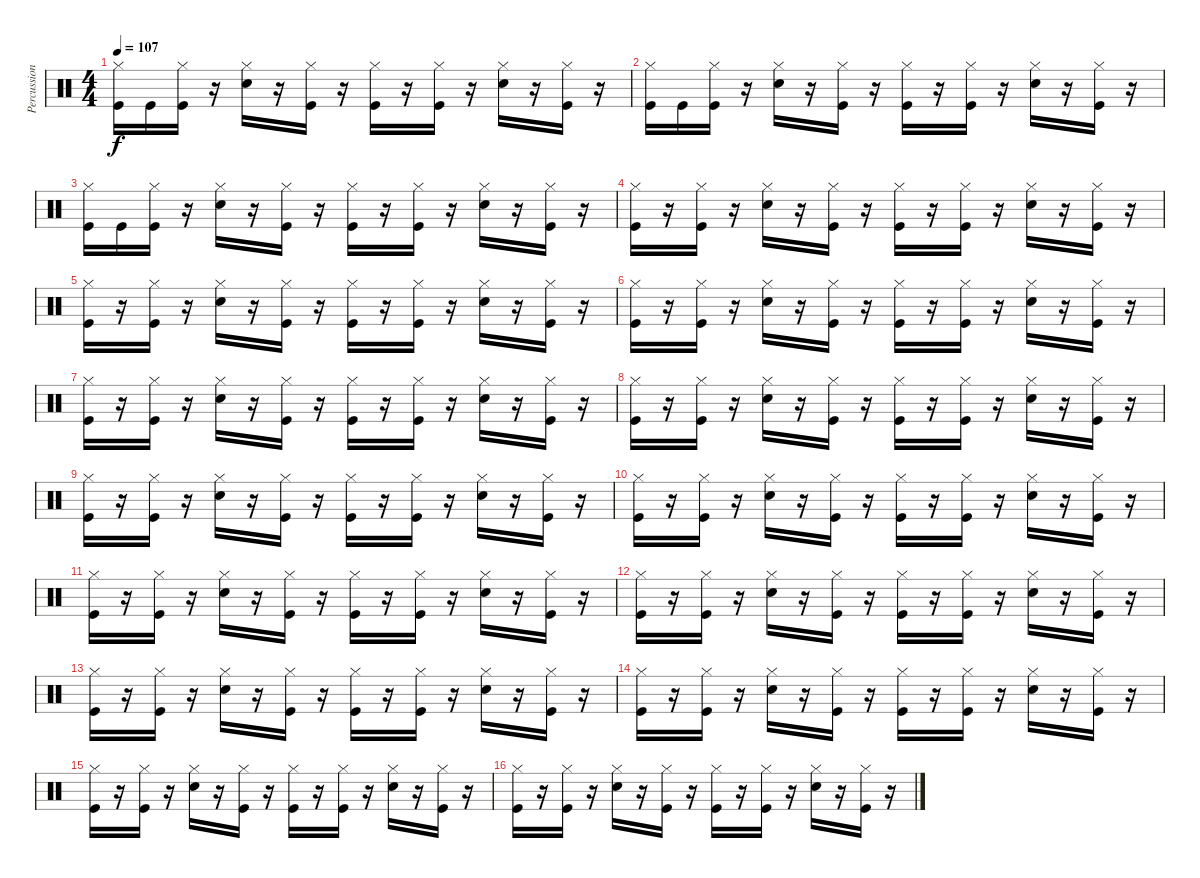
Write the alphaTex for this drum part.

\track ("Percussions" "Percussion") {instrument percussion}
\staff {score}
\articulation defaults
\ts (4 4)
\tempo 107
\clef neutral
\ks c
("Hi-Hat (closed)" "Kick (hit)").16{dy f volume 0} "Kick (hit)".16{volume 16} ("Hi-Hat (closed)" "Kick (hit)").16 r.16 ("Hi-Hat (closed)" "Electric Snare (hit)").16 r.16 ("Hi-Hat (closed)" "Kick (hit)").16 r.16 ("Hi-Hat (closed)" "Kick (hit)").16 r.16 ("Hi-Hat (closed)" "Kick (hit)").16 r.16 ("Hi-Hat (closed)" "Electric Snare (hit)").16 r.16 ("Hi-Hat (closed)" "Kick (hit)").16 r.16 |
("Hi-Hat (closed)" "Kick (hit)").16 "Kick (hit)".16 ("Hi-Hat (closed)" "Kick (hit)").16 r.16 ("Hi-Hat (closed)" "Electric Snare (hit)").16 r.16 ("Hi-Hat (closed)" "Kick (hit)").16 r.16 ("Hi-Hat (closed)" "Kick (hit)").16 r.16 ("Hi-Hat (closed)" "Kick (hit)").16 r.16 ("Hi-Hat (closed)" "Electric Snare (hit)").16 r.16 ("Hi-Hat (closed)" "Kick (hit)").16 r.16 |
("Hi-Hat (closed)" "Kick (hit)").16 "Kick (hit)".16 ("Hi-Hat (closed)" "Kick (hit)").16 r.16 ("Hi-Hat (closed)" "Electric Snare (hit)").16 r.16 ("Hi-Hat (closed)" "Kick (hit)").16 r.16 ("Hi-Hat (closed)" "Kick (hit)").16 r.16 ("Hi-Hat (closed)" "Kick (hit)").16 r.16 ("Hi-Hat (closed)" "Electric Snare (hit)").16 r.16 ("Hi-Hat (closed)" "Kick (hit)").16 r.16 |
("Hi-Hat (closed)" "Kick (hit)").16 r.16 ("Hi-Hat (closed)" "Kick (hit)").16 r.16 ("Hi-Hat (closed)" "Electric Snare (hit)").16 r.16 ("Hi-Hat (closed)" "Kick (hit)").16 r.16 ("Hi-Hat (closed)" "Kick (hit)").16 r.16 ("Hi-Hat (closed)" "Kick (hit)").16 r.16 ("Hi-Hat (closed)" "Electric Snare (hit)").16 r.16 ("Hi-Hat (closed)" "Kick (hit)").16 r.16 |
("Hi-Hat (closed)" "Kick (hit)").16 r.16 ("Hi-Hat (closed)" "Kick (hit)").16 r.16 ("Hi-Hat (closed)" "Electric Snare (hit)").16 r.16 ("Hi-Hat (closed)" "Kick (hit)").16 r.16 ("Hi-Hat (closed)" "Kick (hit)").16 r.16 ("Hi-Hat (closed)" "Kick (hit)").16 r.16 ("Hi-Hat (closed)" "Electric Snare (hit)").16 r.16 ("Hi-Hat (closed)" "Kick (hit)").16 r.16 |
("Hi-Hat (closed)" "Kick (hit)").16 r.16 ("Hi-Hat (closed)" "Kick (hit)").16 r.16 ("Hi-Hat (closed)" "Electric Snare (hit)").16 r.16 ("Hi-Hat (closed)" "Kick (hit)").16 r.16 ("Hi-Hat (closed)" "Kick (hit)").16 r.16 ("Hi-Hat (closed)" "Kick (hit)").16 r.16 ("Hi-Hat (closed)" "Electric Snare (hit)").16 r.16 ("Hi-Hat (closed)" "Kick (hit)").16 r.16 |
("Hi-Hat (closed)" "Kick (hit)").16 r.16 ("Hi-Hat (closed)" "Kick (hit)").16 r.16 ("Hi-Hat (closed)" "Electric Snare (hit)").16 r.16 ("Hi-Hat (closed)" "Kick (hit)").16 r.16 ("Hi-Hat (closed)" "Kick (hit)").16 r.16 ("Hi-Hat (closed)" "Kick (hit)").16 r.16 ("Hi-Hat (closed)" "Electric Snare (hit)").16 r.16 ("Hi-Hat (closed)" "Kick (hit)").16 r.16 |
("Hi-Hat (closed)" "Kick (hit)").16 r.16 ("Hi-Hat (closed)" "Kick (hit)").16 r.16 ("Hi-Hat (closed)" "Electric Snare (hit)").16 r.16 ("Hi-Hat (closed)" "Kick (hit)").16 r.16 ("Hi-Hat (closed)" "Kick (hit)").16 r.16 ("Hi-Hat (closed)" "Kick (hit)").16 r.16 ("Hi-Hat (closed)" "Electric Snare (hit)").16 r.16 ("Hi-Hat (closed)" "Kick (hit)").16 r.16 |
("Hi-Hat (closed)" "Kick (hit)").16 r.16 ("Hi-Hat (closed)" "Kick (hit)").16 r.16 ("Hi-Hat (closed)" "Electric Snare (hit)").16 r.16 ("Hi-Hat (closed)" "Kick (hit)").16 r.16 ("Hi-Hat (closed)" "Kick (hit)").16 r.16 ("Hi-Hat (closed)" "Kick (hit)").16 r.16 ("Hi-Hat (closed)" "Electric Snare (hit)").16 r.16 ("Hi-Hat (closed)" "Kick (hit)").16 r.16 |
("Hi-Hat (closed)" "Kick (hit)").16 r.16 ("Hi-Hat (closed)" "Kick (hit)").16 r.16 ("Hi-Hat (closed)" "Electric Snare (hit)").16 r.16 ("Hi-Hat (closed)" "Kick (hit)").16 r.16 ("Hi-Hat (closed)" "Kick (hit)").16 r.16 ("Hi-Hat (closed)" "Kick (hit)").16 r.16 ("Hi-Hat (closed)" "Electric Snare (hit)").16 r.16 ("Hi-Hat (closed)" "Kick (hit)").16 r.16 |
("Hi-Hat (closed)" "Kick (hit)").16 r.16 ("Hi-Hat (closed)" "Kick (hit)").16 r.16 ("Hi-Hat (closed)" "Electric Snare (hit)").16 r.16 ("Hi-Hat (closed)" "Kick (hit)").16 r.16 ("Hi-Hat (closed)" "Kick (hit)").16 r.16 ("Hi-Hat (closed)" "Kick (hit)").16 r.16 ("Hi-Hat (closed)" "Electric Snare (hit)").16 r.16 ("Hi-Hat (closed)" "Kick (hit)").16 r.16 |
("Hi-Hat (closed)" "Kick (hit)").16 r.16 ("Hi-Hat (closed)" "Kick (hit)").16 r.16 ("Hi-Hat (closed)" "Electric Snare (hit)").16 r.16 ("Hi-Hat (closed)" "Kick (hit)").16 r.16 ("Hi-Hat (closed)" "Kick (hit)").16 r.16 ("Hi-Hat (closed)" "Kick (hit)").16 r.16 ("Hi-Hat (closed)" "Electric Snare (hit)").16 r.16 ("Hi-Hat (closed)" "Kick (hit)").16 r.16 |
("Hi-Hat (closed)" "Kick (hit)").16 r.16 ("Hi-Hat (closed)" "Kick (hit)").16 r.16 ("Hi-Hat (closed)" "Electric Snare (hit)").16 r.16 ("Hi-Hat (closed)" "Kick (hit)").16 r.16 ("Hi-Hat (closed)" "Kick (hit)").16 r.16 ("Hi-Hat (closed)" "Kick (hit)").16 r.16 ("Hi-Hat (closed)" "Electric Snare (hit)").16 r.16 ("Hi-Hat (closed)" "Kick (hit)").16 r.16 |
("Hi-Hat (closed)" "Kick (hit)").16 r.16 ("Hi-Hat (closed)" "Kick (hit)").16 r.16 ("Hi-Hat (closed)" "Electric Snare (hit)").16 r.16 ("Hi-Hat (closed)" "Kick (hit)").16 r.16 ("Hi-Hat (closed)" "Kick (hit)").16 r.16 ("Hi-Hat (closed)" "Kick (hit)").16 r.16 ("Hi-Hat (closed)" "Electric Snare (hit)").16 r.16 ("Hi-Hat (closed)" "Kick (hit)").16 r.16 |
("Hi-Hat (closed)" "Kick (hit)").16 r.16 ("Hi-Hat (closed)" "Kick (hit)").16 r.16 ("Hi-Hat (closed)" "Electric Snare (hit)").16 r.16 ("Hi-Hat (closed)" "Kick (hit)").16 r.16 ("Hi-Hat (closed)" "Kick (hit)").16 r.16 ("Hi-Hat (closed)" "Kick (hit)").16 r.16 ("Hi-Hat (closed)" "Electric Snare (hit)").16 r.16 ("Hi-Hat (closed)" "Kick (hit)").16 r.16 |
("Hi-Hat (closed)" "Kick (hit)").16 r.16 ("Hi-Hat (closed)" "Kick (hit)").16 r.16 ("Hi-Hat (closed)" "Electric Snare (hit)").16 r.16 ("Hi-Hat (closed)" "Kick (hit)").16 r.16 ("Hi-Hat (closed)" "Kick (hit)").16 r.16 ("Hi-Hat (closed)" "Kick (hit)").16 r.16 ("Hi-Hat (closed)" "Electric Snare (hit)").16 r.16 ("Hi-Hat (closed)" "Kick (hit)").16 r.16
